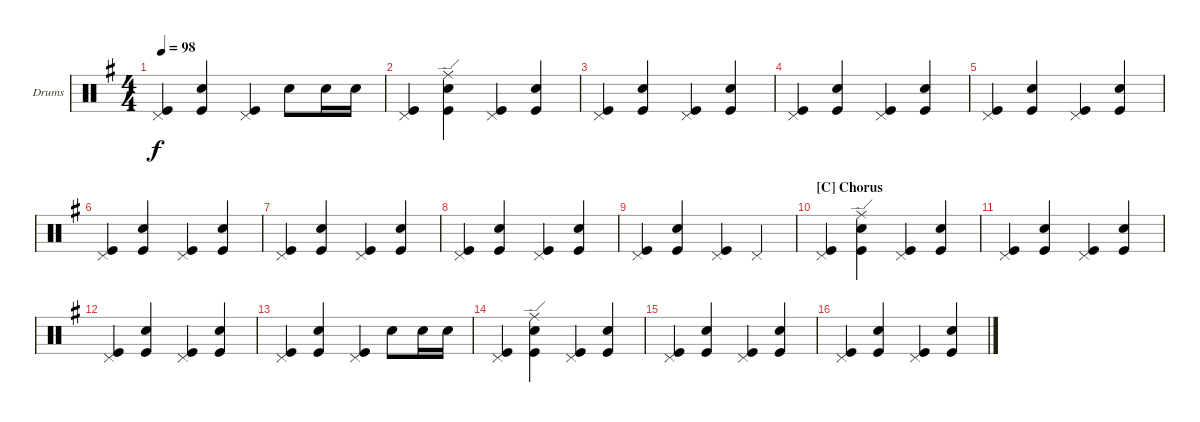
\defaultSystemsLayout 4
\bracketExtendMode groupsimilarinstruments
\firstSystemTrackNameOrientation horizontal
\otherSystemsTrackNameOrientation horizontal
\track ("Matt Helders" "Drums") {multiBarRest instrument percussion}
\staff {score}
\articulation defaults
\ts (4 4)
\tempo 98
\clef neutral
\ks g
("Kick (hit)" "Pedal Hi-Hat (hit)").4{dy f} ("Snare (hit) 2" "Kick (hit)").4 ("Kick (hit)" "Pedal Hi-Hat (hit)").4 "Snare (hit) 2".8 "Snare (hit) 2".16 "Snare (hit) 2".16 |
("Kick (hit)" "Pedal Hi-Hat (hit)").4 ("Snare (hit) 2" "Kick (hit)" "Ride (edge)").4 ("Kick (hit)" "Pedal Hi-Hat (hit)").4 ("Snare (hit) 2" "Kick (hit)").4 |
("Kick (hit)" "Pedal Hi-Hat (hit)").4 ("Snare (hit) 2" "Kick (hit)").4 ("Kick (hit)" "Pedal Hi-Hat (hit)").4 ("Snare (hit) 2" "Kick (hit)").4 |
("Kick (hit)" "Pedal Hi-Hat (hit)").4 ("Snare (hit) 2" "Kick (hit)").4 ("Kick (hit)" "Pedal Hi-Hat (hit)").4 ("Snare (hit) 2" "Kick (hit)").4 |
("Kick (hit)" "Pedal Hi-Hat (hit)").4 ("Snare (hit) 2" "Kick (hit)").4 ("Kick (hit)" "Pedal Hi-Hat (hit)").4 ("Snare (hit) 2" "Kick (hit)").4 |
("Kick (hit)" "Pedal Hi-Hat (hit)").4 ("Snare (hit) 2" "Kick (hit)").4 ("Kick (hit)" "Pedal Hi-Hat (hit)").4 ("Snare (hit) 2" "Kick (hit)").4 |
("Kick (hit)" "Pedal Hi-Hat (hit)").4 ("Snare (hit) 2" "Kick (hit)").4 ("Kick (hit)" "Pedal Hi-Hat (hit)").4 ("Snare (hit) 2" "Kick (hit)").4 |
("Kick (hit)" "Pedal Hi-Hat (hit)").4 ("Snare (hit) 2" "Kick (hit)").4 ("Kick (hit)" "Pedal Hi-Hat (hit)").4 ("Snare (hit) 2" "Kick (hit)").4 |
("Kick (hit)" "Pedal Hi-Hat (hit)").4 ("Snare (hit) 2" "Kick (hit)").4 ("Kick (hit)" "Pedal Hi-Hat (hit)").4 "Pedal Hi-Hat (hit)".4 |
\section ("C" "Chorus")
("Kick (hit)" "Pedal Hi-Hat (hit)").4 ("Snare (hit) 2" "Kick (hit)" "Ride (edge)").4 ("Kick (hit)" "Pedal Hi-Hat (hit)").4 ("Snare (hit) 2" "Kick (hit)").4 |
("Kick (hit)" "Pedal Hi-Hat (hit)").4 ("Snare (hit) 2" "Kick (hit)").4 ("Kick (hit)" "Pedal Hi-Hat (hit)").4 ("Snare (hit) 2" "Kick (hit)").4 |
("Kick (hit)" "Pedal Hi-Hat (hit)").4 ("Snare (hit) 2" "Kick (hit)").4 ("Kick (hit)" "Pedal Hi-Hat (hit)").4 ("Snare (hit) 2" "Kick (hit)").4 |
("Kick (hit)" "Pedal Hi-Hat (hit)").4 ("Snare (hit) 2" "Kick (hit)").4 ("Kick (hit)" "Pedal Hi-Hat (hit)").4 "Snare (hit) 2".8 "Snare (hit) 2".16 "Snare (hit) 2".16 |
("Kick (hit)" "Pedal Hi-Hat (hit)").4 ("Snare (hit) 2" "Kick (hit)" "Ride (edge)").4 ("Kick (hit)" "Pedal Hi-Hat (hit)").4 ("Snare (hit) 2" "Kick (hit)").4 |
("Kick (hit)" "Pedal Hi-Hat (hit)").4 ("Snare (hit) 2" "Kick (hit)").4 ("Kick (hit)" "Pedal Hi-Hat (hit)").4 ("Snare (hit) 2" "Kick (hit)").4 |
("Kick (hit)" "Pedal Hi-Hat (hit)").4 ("Snare (hit) 2" "Kick (hit)").4 ("Kick (hit)" "Pedal Hi-Hat (hit)").4 ("Snare (hit) 2" "Kick (hit)").4
